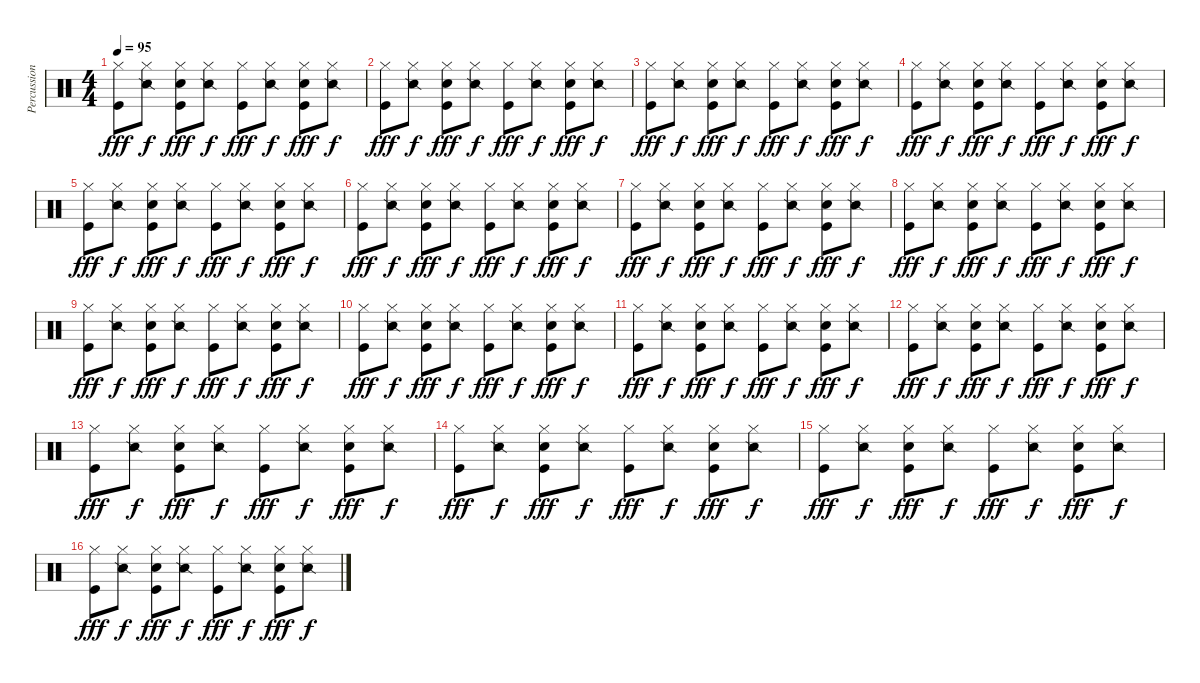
\track ("Percussion" "Percussion") {instrument percussion}
\staff {score}
\articulation defaults
\ts (4 4)
\tempo 95
\clef neutral
\ks c
("Hi-Hat (closed)" "Kick (hit)").8{dy fff} ("Snare (side stick) 2" "Hi-Hat (closed)").8{dy f} ("Hi-Hat (closed)" "Snare (hit) 2" "Kick (hit)").8{dy fff} ("Snare (side stick) 2" "Hi-Hat (closed)").8{dy f} ("Hi-Hat (closed)" "Kick (hit)").8{dy fff} ("Snare (side stick) 2" "Hi-Hat (closed)").8{dy f} ("Hi-Hat (closed)" "Snare (hit) 2" "Kick (hit)").8{dy fff} ("Snare (side stick) 2" "Hi-Hat (closed)").8{dy f} |
("Hi-Hat (closed)" "Kick (hit)").8{dy fff} ("Snare (side stick) 2" "Hi-Hat (closed)").8{dy f} ("Hi-Hat (closed)" "Snare (hit) 2" "Kick (hit)").8{dy fff} ("Snare (side stick) 2" "Hi-Hat (closed)").8{dy f} ("Hi-Hat (closed)" "Kick (hit)").8{dy fff} ("Snare (side stick) 2" "Hi-Hat (closed)").8{dy f} ("Hi-Hat (closed)" "Snare (hit) 2" "Kick (hit)").8{dy fff} ("Snare (side stick) 2" "Hi-Hat (closed)").8{dy f} |
("Hi-Hat (closed)" "Kick (hit)").8{dy fff} ("Snare (side stick) 2" "Hi-Hat (closed)").8{dy f} ("Hi-Hat (closed)" "Snare (hit) 2" "Kick (hit)").8{dy fff} ("Snare (side stick) 2" "Hi-Hat (closed)").8{dy f} ("Hi-Hat (closed)" "Kick (hit)").8{dy fff} ("Snare (side stick) 2" "Hi-Hat (closed)").8{dy f} ("Hi-Hat (closed)" "Snare (hit) 2" "Kick (hit)").8{dy fff} ("Snare (side stick) 2" "Hi-Hat (closed)").8{dy f} |
("Hi-Hat (closed)" "Kick (hit)").8{dy fff} ("Snare (side stick) 2" "Hi-Hat (closed)").8{dy f} ("Hi-Hat (closed)" "Snare (hit) 2" "Kick (hit)").8{dy fff} ("Snare (side stick) 2" "Hi-Hat (closed)").8{dy f} ("Hi-Hat (closed)" "Kick (hit)").8{dy fff} ("Snare (side stick) 2" "Hi-Hat (closed)").8{dy f} ("Hi-Hat (closed)" "Snare (hit) 2" "Kick (hit)").8{dy fff} ("Snare (side stick) 2" "Hi-Hat (closed)").8{dy f} |
("Hi-Hat (closed)" "Kick (hit)").8{dy fff} ("Snare (side stick) 2" "Hi-Hat (closed)").8{dy f} ("Hi-Hat (closed)" "Snare (hit) 2" "Kick (hit)").8{dy fff} ("Snare (side stick) 2" "Hi-Hat (closed)").8{dy f} ("Hi-Hat (closed)" "Kick (hit)").8{dy fff} ("Snare (side stick) 2" "Hi-Hat (closed)").8{dy f} ("Hi-Hat (closed)" "Snare (hit) 2" "Kick (hit)").8{dy fff} ("Snare (side stick) 2" "Hi-Hat (closed)").8{dy f} |
("Hi-Hat (closed)" "Kick (hit)").8{dy fff} ("Snare (side stick) 2" "Hi-Hat (closed)").8{dy f} ("Hi-Hat (closed)" "Snare (hit) 2" "Kick (hit)").8{dy fff} ("Snare (side stick) 2" "Hi-Hat (closed)").8{dy f} ("Hi-Hat (closed)" "Kick (hit)").8{dy fff} ("Snare (side stick) 2" "Hi-Hat (closed)").8{dy f} ("Hi-Hat (closed)" "Snare (hit) 2" "Kick (hit)").8{dy fff} ("Snare (side stick) 2" "Hi-Hat (closed)").8{dy f} |
("Hi-Hat (closed)" "Kick (hit)").8{dy fff} ("Snare (side stick) 2" "Hi-Hat (closed)").8{dy f} ("Hi-Hat (closed)" "Snare (hit) 2" "Kick (hit)").8{dy fff} ("Snare (side stick) 2" "Hi-Hat (closed)").8{dy f} ("Hi-Hat (closed)" "Kick (hit)").8{dy fff} ("Snare (side stick) 2" "Hi-Hat (closed)").8{dy f} ("Hi-Hat (closed)" "Snare (hit) 2" "Kick (hit)").8{dy fff} ("Snare (side stick) 2" "Hi-Hat (closed)").8{dy f} |
("Hi-Hat (closed)" "Kick (hit)").8{dy fff} ("Snare (side stick) 2" "Hi-Hat (closed)").8{dy f} ("Hi-Hat (closed)" "Snare (hit) 2" "Kick (hit)").8{dy fff} ("Snare (side stick) 2" "Hi-Hat (closed)").8{dy f} ("Hi-Hat (closed)" "Kick (hit)").8{dy fff} ("Snare (side stick) 2" "Hi-Hat (closed)").8{dy f} ("Hi-Hat (closed)" "Snare (hit) 2" "Kick (hit)").8{dy fff} ("Snare (side stick) 2" "Hi-Hat (closed)").8{dy f} |
("Hi-Hat (closed)" "Kick (hit)").8{dy fff} ("Snare (side stick) 2" "Hi-Hat (closed)").8{dy f} ("Hi-Hat (closed)" "Snare (hit) 2" "Kick (hit)").8{dy fff} ("Snare (side stick) 2" "Hi-Hat (closed)").8{dy f} ("Hi-Hat (closed)" "Kick (hit)").8{dy fff} ("Snare (side stick) 2" "Hi-Hat (closed)").8{dy f} ("Hi-Hat (closed)" "Snare (hit) 2" "Kick (hit)").8{dy fff} ("Snare (side stick) 2" "Hi-Hat (closed)").8{dy f} |
("Hi-Hat (closed)" "Kick (hit)").8{dy fff} ("Snare (side stick) 2" "Hi-Hat (closed)").8{dy f} ("Hi-Hat (closed)" "Snare (hit) 2" "Kick (hit)").8{dy fff} ("Snare (side stick) 2" "Hi-Hat (closed)").8{dy f} ("Hi-Hat (closed)" "Kick (hit)").8{dy fff} ("Snare (side stick) 2" "Hi-Hat (closed)").8{dy f} ("Hi-Hat (closed)" "Snare (hit) 2" "Kick (hit)").8{dy fff} ("Snare (side stick) 2" "Hi-Hat (closed)").8{dy f} |
("Hi-Hat (closed)" "Kick (hit)").8{dy fff} ("Snare (side stick) 2" "Hi-Hat (closed)").8{dy f} ("Hi-Hat (closed)" "Snare (hit) 2" "Kick (hit)").8{dy fff} ("Snare (side stick) 2" "Hi-Hat (closed)").8{dy f} ("Hi-Hat (closed)" "Kick (hit)").8{dy fff} ("Snare (side stick) 2" "Hi-Hat (closed)").8{dy f} ("Hi-Hat (closed)" "Snare (hit) 2" "Kick (hit)").8{dy fff} ("Snare (side stick) 2" "Hi-Hat (closed)").8{dy f} |
("Hi-Hat (closed)" "Kick (hit)").8{dy fff} ("Snare (side stick) 2" "Hi-Hat (closed)").8{dy f} ("Hi-Hat (closed)" "Snare (hit) 2" "Kick (hit)").8{dy fff} ("Snare (side stick) 2" "Hi-Hat (closed)").8{dy f} ("Hi-Hat (closed)" "Kick (hit)").8{dy fff} ("Snare (side stick) 2" "Hi-Hat (closed)").8{dy f} ("Hi-Hat (closed)" "Snare (hit) 2" "Kick (hit)").8{dy fff} ("Snare (side stick) 2" "Hi-Hat (closed)").8{dy f} |
("Hi-Hat (closed)" "Kick (hit)").8{dy fff} ("Snare (side stick) 2" "Hi-Hat (closed)").8{dy f} ("Hi-Hat (closed)" "Snare (hit) 2" "Kick (hit)").8{dy fff} ("Snare (side stick) 2" "Hi-Hat (closed)").8{dy f} ("Hi-Hat (closed)" "Kick (hit)").8{dy fff} ("Snare (side stick) 2" "Hi-Hat (closed)").8{dy f} ("Hi-Hat (closed)" "Snare (hit) 2" "Kick (hit)").8{dy fff} ("Snare (side stick) 2" "Hi-Hat (closed)").8{dy f} |
("Hi-Hat (closed)" "Kick (hit)").8{dy fff} ("Snare (side stick) 2" "Hi-Hat (closed)").8{dy f} ("Hi-Hat (closed)" "Snare (hit) 2" "Kick (hit)").8{dy fff} ("Snare (side stick) 2" "Hi-Hat (closed)").8{dy f} ("Hi-Hat (closed)" "Kick (hit)").8{dy fff} ("Snare (side stick) 2" "Hi-Hat (closed)").8{dy f} ("Hi-Hat (closed)" "Snare (hit) 2" "Kick (hit)").8{dy fff} ("Snare (side stick) 2" "Hi-Hat (closed)").8{dy f} |
("Hi-Hat (closed)" "Kick (hit)").8{dy fff} ("Snare (side stick) 2" "Hi-Hat (closed)").8{dy f} ("Hi-Hat (closed)" "Snare (hit) 2" "Kick (hit)").8{dy fff} ("Snare (side stick) 2" "Hi-Hat (closed)").8{dy f} ("Hi-Hat (closed)" "Kick (hit)").8{dy fff} ("Snare (side stick) 2" "Hi-Hat (closed)").8{dy f} ("Hi-Hat (closed)" "Snare (hit) 2" "Kick (hit)").8{dy fff} ("Snare (side stick) 2" "Hi-Hat (closed)").8{dy f} |
("Hi-Hat (closed)" "Kick (hit)").8{dy fff} ("Snare (side stick) 2" "Hi-Hat (closed)").8{dy f} ("Hi-Hat (closed)" "Snare (hit) 2" "Kick (hit)").8{dy fff} ("Snare (side stick) 2" "Hi-Hat (closed)").8{dy f} ("Hi-Hat (closed)" "Kick (hit)").8{dy fff} ("Snare (side stick) 2" "Hi-Hat (closed)").8{dy f} ("Hi-Hat (closed)" "Snare (hit) 2" "Kick (hit)").8{dy fff} ("Snare (side stick) 2" "Hi-Hat (closed)").8{dy f}
